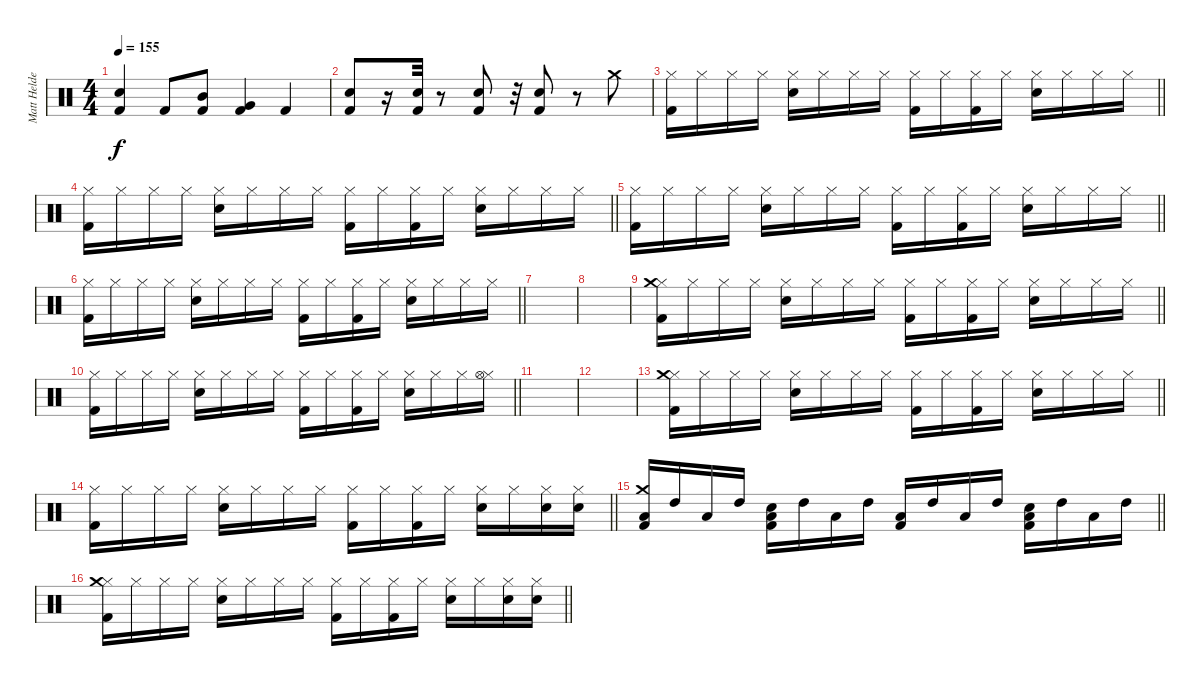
\track ("Matt Helders" "Matt Helde") {instrument percussion}
\staff {score}
\articulation defaults
\ts (4 4)
\tempo 155
\clef neutral
\ks c
("Snare (hit) 2" "Kick (hit) 2").4{dy f} "Kick (hit) 2".8 ("Mid Tom (hit)" "Kick (hit) 2").8 ("Very Low Tom (hit)" "Kick (hit) 2").4 "Kick (hit) 2".4 |
("Snare (hit) 2" "Kick (hit) 2").8 r.16 ("Snare (hit) 2" "Kick (hit) 2").32 r.8 ("Snare (hit) 2" "Kick (hit) 2").8 r.32 ("Snare (hit) 2" "Kick (hit) 2").8 r.8 "Crash medium (hit)".8 |
\barLineRight lightlight
("Hi-Hat (closed)" "Kick (hit) 2").16 "Hi-Hat (closed)".16 "Hi-Hat (closed)".16 "Hi-Hat (closed)".16 ("Hi-Hat (closed)" "Snare (hit) 2").16 "Hi-Hat (closed)".16 "Hi-Hat (closed)".16 "Hi-Hat (closed)".16 ("Hi-Hat (closed)" "Kick (hit) 2").16 "Hi-Hat (closed)".16 ("Hi-Hat (closed)" "Kick (hit) 2").16 "Hi-Hat (closed)".16 ("Hi-Hat (closed)" "Snare (hit) 2").16 "Hi-Hat (closed)".16 "Hi-Hat (closed)".16 "Hi-Hat (closed)".16 |
\barLineRight lightlight
("Hi-Hat (closed)" "Kick (hit) 2").16 "Hi-Hat (closed)".16 "Hi-Hat (closed)".16 "Hi-Hat (closed)".16 ("Hi-Hat (closed)" "Snare (hit) 2").16 "Hi-Hat (closed)".16 "Hi-Hat (closed)".16 "Hi-Hat (closed)".16 ("Hi-Hat (closed)" "Kick (hit) 2").16 "Hi-Hat (closed)".16 ("Hi-Hat (closed)" "Kick (hit) 2").16 "Hi-Hat (closed)".16 ("Hi-Hat (closed)" "Snare (hit) 2").16 "Hi-Hat (closed)".16 "Hi-Hat (closed)".16 "Hi-Hat (closed)".16 |
\barLineRight lightlight
("Hi-Hat (closed)" "Kick (hit) 2").16 "Hi-Hat (closed)".16 "Hi-Hat (closed)".16 "Hi-Hat (closed)".16 ("Hi-Hat (closed)" "Snare (hit) 2").16 "Hi-Hat (closed)".16 "Hi-Hat (closed)".16 "Hi-Hat (closed)".16 ("Hi-Hat (closed)" "Kick (hit) 2").16 "Hi-Hat (closed)".16 ("Hi-Hat (closed)" "Kick (hit) 2").16 "Hi-Hat (closed)".16 ("Hi-Hat (closed)" "Snare (hit) 2").16 "Hi-Hat (closed)".16 "Hi-Hat (closed)".16 "Hi-Hat (closed)".16 |
\barLineRight lightlight
("Hi-Hat (closed)" "Kick (hit) 2").16 "Hi-Hat (closed)".16 "Hi-Hat (closed)".16 "Hi-Hat (closed)".16 ("Hi-Hat (closed)" "Snare (hit) 2").16 "Hi-Hat (closed)".16 "Hi-Hat (closed)".16 "Hi-Hat (closed)".16 ("Hi-Hat (closed)" "Kick (hit) 2").16 "Hi-Hat (closed)".16 ("Hi-Hat (closed)" "Kick (hit) 2").16 "Hi-Hat (closed)".16 ("Hi-Hat (closed)" "Snare (hit) 2").16 "Hi-Hat (closed)".16 "Hi-Hat (closed)".16 "Hi-Hat (closed)".16 |
|
|
\barLineRight lightlight
("Hi-Hat (closed)" "Kick (hit) 2" "Crash medium (hit)").16 "Hi-Hat (closed)".16 "Hi-Hat (closed)".16 "Hi-Hat (closed)".16 ("Hi-Hat (closed)" "Snare (hit) 2").16 "Hi-Hat (closed)".16 "Hi-Hat (closed)".16 "Hi-Hat (closed)".16 ("Hi-Hat (closed)" "Kick (hit) 2").16 "Hi-Hat (closed)".16 ("Hi-Hat (closed)" "Kick (hit) 2").16 "Hi-Hat (closed)".16 ("Hi-Hat (closed)" "Snare (hit) 2").16 "Hi-Hat (closed)".16 "Hi-Hat (closed)".16 "Hi-Hat (closed)".16 |
\barLineRight lightlight
("Hi-Hat (closed)" "Kick (hit) 2").16 "Hi-Hat (closed)".16 "Hi-Hat (closed)".16 "Hi-Hat (closed)".16 ("Hi-Hat (closed)" "Snare (hit) 2").16 "Hi-Hat (closed)".16 "Hi-Hat (closed)".16 "Hi-Hat (closed)".16 ("Hi-Hat (closed)" "Kick (hit) 2").16 "Hi-Hat (closed)".16 ("Hi-Hat (closed)" "Kick (hit) 2").16 "Hi-Hat (closed)".16 ("Hi-Hat (closed)" "Snare (hit) 2").16 "Hi-Hat (closed)".16 "Hi-Hat (closed)".16 ("Hi-Hat (closed)" "Hi-Hat (open)").16 |
|
|
\barLineRight lightlight
("Hi-Hat (closed)" "Kick (hit) 2" "Crash medium (hit)").16 "Hi-Hat (closed)".16 "Hi-Hat (closed)".16 "Hi-Hat (closed)".16 ("Hi-Hat (closed)" "Snare (hit) 2").16 "Hi-Hat (closed)".16 "Hi-Hat (closed)".16 "Hi-Hat (closed)".16 ("Hi-Hat (closed)" "Kick (hit) 2").16 "Hi-Hat (closed)".16 ("Hi-Hat (closed)" "Kick (hit) 2").16 "Hi-Hat (closed)".16 ("Hi-Hat (closed)" "Snare (hit) 2").16 "Hi-Hat (closed)".16 "Hi-Hat (closed)".16 "Hi-Hat (closed)".16 |
\barLineRight lightlight
("Hi-Hat (closed)" "Kick (hit) 2").16 "Hi-Hat (closed)".16 "Hi-Hat (closed)".16 "Hi-Hat (closed)".16 ("Hi-Hat (closed)" "Snare (hit) 2").16 "Hi-Hat (closed)".16 "Hi-Hat (closed)".16 "Hi-Hat (closed)".16 ("Hi-Hat (closed)" "Kick (hit) 2").16 "Hi-Hat (closed)".16 ("Hi-Hat (closed)" "Kick (hit) 2").16 "Hi-Hat (closed)".16 ("Hi-Hat (closed)" "Snare (hit) 2").16 "Hi-Hat (closed)".16 ("Hi-Hat (closed)" "Snare (hit) 2").16 ("Hi-Hat (closed)" "Snare (hit) 2").16 |
\barLineRight lightlight
("Low Tom (hit)" "Kick (hit) 2" "Crash medium (hit)").16 "High Tom (hit)".16 "Low Tom (hit)".16 "High Tom (hit)".16 ("Low Tom (hit)" "Kick (hit) 2" "Snare (hit) 2").16 "High Tom (hit)".16 "Low Tom (hit)".16 "High Tom (hit)".16 ("Low Tom (hit)" "Kick (hit) 2").16 "High Tom (hit)".16 "Low Tom (hit)".16 "High Tom (hit)".16 ("Low Tom (hit)" "Kick (hit) 2" "Snare (hit) 2").16 "High Tom (hit)".16 "Low Tom (hit)".16 "High Tom (hit)".16 |
\barLineRight lightlight
("Hi-Hat (closed)" "Kick (hit) 2" "Crash medium (hit)").16 "Hi-Hat (closed)".16 "Hi-Hat (closed)".16 "Hi-Hat (closed)".16 ("Hi-Hat (closed)" "Snare (hit) 2").16 "Hi-Hat (closed)".16 "Hi-Hat (closed)".16 "Hi-Hat (closed)".16 ("Hi-Hat (closed)" "Kick (hit) 2").16 "Hi-Hat (closed)".16 ("Hi-Hat (closed)" "Kick (hit) 2").16 "Hi-Hat (closed)".16 ("Hi-Hat (closed)" "Snare (hit) 2").16 "Hi-Hat (closed)".16 ("Hi-Hat (closed)" "Snare (hit) 2").16 ("Hi-Hat (closed)" "Snare (hit) 2").16
